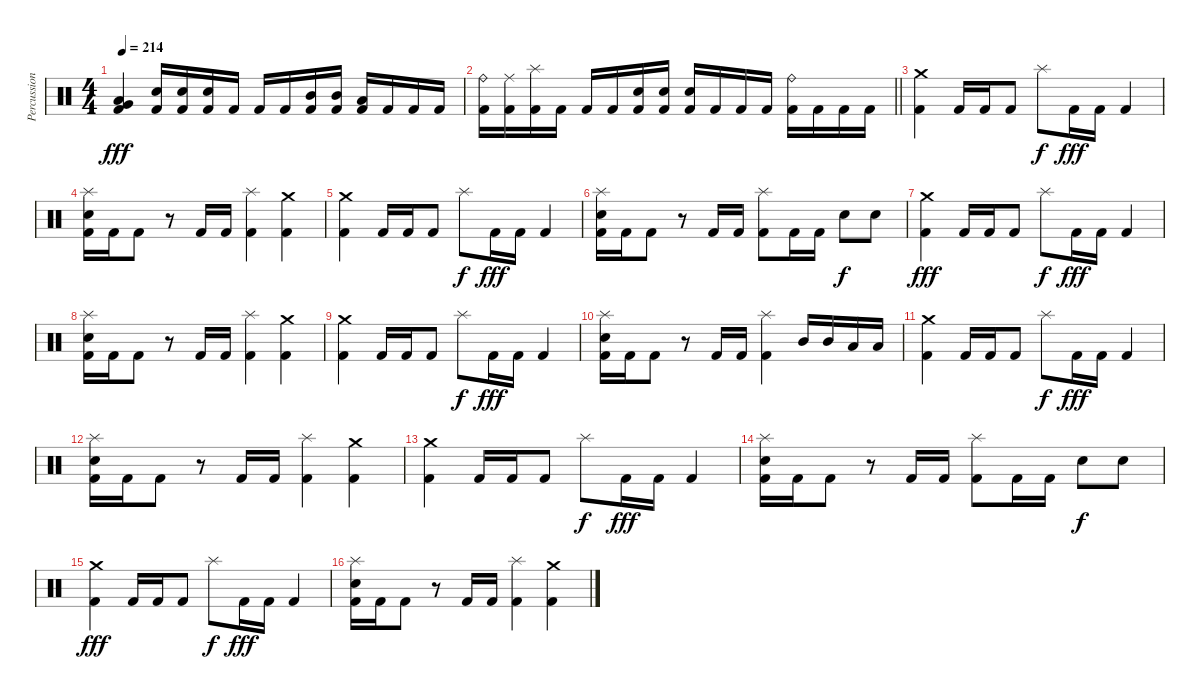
\track ("Percussion" "Percussion") {instrument percussion}
\staff {score}
\articulation defaults
\ts (4 4)
\tempo 214
\clef neutral
\ks c
("Very Low Tom (hit)" "Low Floor Tom (hit)" "Kick (hit) 2").4{dy fff} ("Electric Snare (hit)" "Kick (hit) 2").16 ("Electric Snare (hit)" "Kick (hit) 2").16 ("Electric Snare (hit)" "Kick (hit) 2").16 "Kick (hit) 2".16 "Kick (hit) 2".16 "Kick (hit) 2".16 ("Mid Tom (hit)" "Kick (hit) 2").16 ("Mid Tom (hit)" "Kick (hit) 2").16 ("Low Tom (hit)" "Kick (hit) 2").16 "Kick (hit) 2".16 "Kick (hit) 2".16 "Kick (hit) 2".16 |
\barLineRight lightlight
("Ride (bell)" "Kick (hit) 2").16 ("Ride (middle)" "Kick (hit) 2").16 ("Splash (hit)" "Kick (hit) 2").16 "Kick (hit) 2".16 "Kick (hit) 2".16 "Kick (hit) 2".16 ("Electric Snare (hit)" "Kick (hit) 2").16 ("Electric Snare (hit)" "Kick (hit) 2").16 ("Electric Snare (hit)" "Kick (hit) 2").16 "Kick (hit) 2".16 "Kick (hit) 2".16 "Kick (hit) 2".16 ("Ride (bell)" "Kick (hit) 2").16 "Kick (hit) 2".16 "Kick (hit) 2".16 "Kick (hit) 2".16 |
\section ("" "")
("Crash medium (hit)" "Kick (hit) 2").4 "Kick (hit) 2".16 "Kick (hit) 2".16 "Kick (hit) 2".8 "Splash (hit)".8{dy f} "Kick (hit) 2".16{dy fff} "Kick (hit) 2".16 "Kick (hit) 2".4 |
("Splash (hit)" "Electric Snare (hit)" "Kick (hit) 2").16 "Kick (hit) 2".16 "Kick (hit) 2".8 r.8 "Kick (hit) 2".16 "Kick (hit) 2".16 ("Splash (hit)" "Kick (hit) 2").4 ("Crash medium (hit)" "Kick (hit) 2").4 |
("Crash medium (hit)" "Kick (hit) 2").4 "Kick (hit) 2".16 "Kick (hit) 2".16 "Kick (hit) 2".8 "Splash (hit)".8{dy f} "Kick (hit) 2".16{dy fff} "Kick (hit) 2".16 "Kick (hit) 2".4 |
("Splash (hit)" "Electric Snare (hit)" "Kick (hit) 2").16 "Kick (hit) 2".16 "Kick (hit) 2".8 r.8 "Kick (hit) 2".16 "Kick (hit) 2".16 ("Splash (hit)" "Kick (hit) 2").8 "Kick (hit) 2".16 "Kick (hit) 2".16 "Electric Snare (hit)".8{dy f} "Electric Snare (hit)".8 |
("Crash medium (hit)" "Kick (hit) 2").4{dy fff} "Kick (hit) 2".16 "Kick (hit) 2".16 "Kick (hit) 2".8 "Splash (hit)".8{dy f} "Kick (hit) 2".16{dy fff} "Kick (hit) 2".16 "Kick (hit) 2".4 |
("Splash (hit)" "Electric Snare (hit)" "Kick (hit) 2").16 "Kick (hit) 2".16 "Kick (hit) 2".8 r.8 "Kick (hit) 2".16 "Kick (hit) 2".16 ("Splash (hit)" "Kick (hit) 2").4 ("Crash medium (hit)" "Kick (hit) 2").4 |
("Crash medium (hit)" "Kick (hit) 2").4 "Kick (hit) 2".16 "Kick (hit) 2".16 "Kick (hit) 2".8 "Splash (hit)".8{dy f} "Kick (hit) 2".16{dy fff} "Kick (hit) 2".16 "Kick (hit) 2".4 |
("Splash (hit)" "Electric Snare (hit)" "Kick (hit) 2").16 "Kick (hit) 2".16 "Kick (hit) 2".8 r.8 "Kick (hit) 2".16 "Kick (hit) 2".16 ("Splash (hit)" "Kick (hit) 2").4 "Mid Tom (hit)".16 "Mid Tom (hit)".16 "Low Tom (hit)".16 "Low Tom (hit)".16 |
("Crash medium (hit)" "Kick (hit) 2").4 "Kick (hit) 2".16 "Kick (hit) 2".16 "Kick (hit) 2".8 "Splash (hit)".8{dy f} "Kick (hit) 2".16{dy fff} "Kick (hit) 2".16 "Kick (hit) 2".4 |
("Splash (hit)" "Electric Snare (hit)" "Kick (hit) 2").16 "Kick (hit) 2".16 "Kick (hit) 2".8 r.8 "Kick (hit) 2".16 "Kick (hit) 2".16 ("Splash (hit)" "Kick (hit) 2").4 ("Crash medium (hit)" "Kick (hit) 2").4 |
("Crash medium (hit)" "Kick (hit) 2").4 "Kick (hit) 2".16 "Kick (hit) 2".16 "Kick (hit) 2".8 "Splash (hit)".8{dy f} "Kick (hit) 2".16{dy fff} "Kick (hit) 2".16 "Kick (hit) 2".4 |
("Splash (hit)" "Electric Snare (hit)" "Kick (hit) 2").16 "Kick (hit) 2".16 "Kick (hit) 2".8 r.8 "Kick (hit) 2".16 "Kick (hit) 2".16 ("Splash (hit)" "Kick (hit) 2").8 "Kick (hit) 2".16 "Kick (hit) 2".16 "Electric Snare (hit)".8{dy f} "Electric Snare (hit)".8 |
("Crash medium (hit)" "Kick (hit) 2").4{dy fff} "Kick (hit) 2".16 "Kick (hit) 2".16 "Kick (hit) 2".8 "Splash (hit)".8{dy f} "Kick (hit) 2".16{dy fff} "Kick (hit) 2".16 "Kick (hit) 2".4 |
("Splash (hit)" "Electric Snare (hit)" "Kick (hit) 2").16 "Kick (hit) 2".16 "Kick (hit) 2".8 r.8 "Kick (hit) 2".16 "Kick (hit) 2".16 ("Splash (hit)" "Kick (hit) 2").4 ("Crash medium (hit)" "Kick (hit) 2").4
